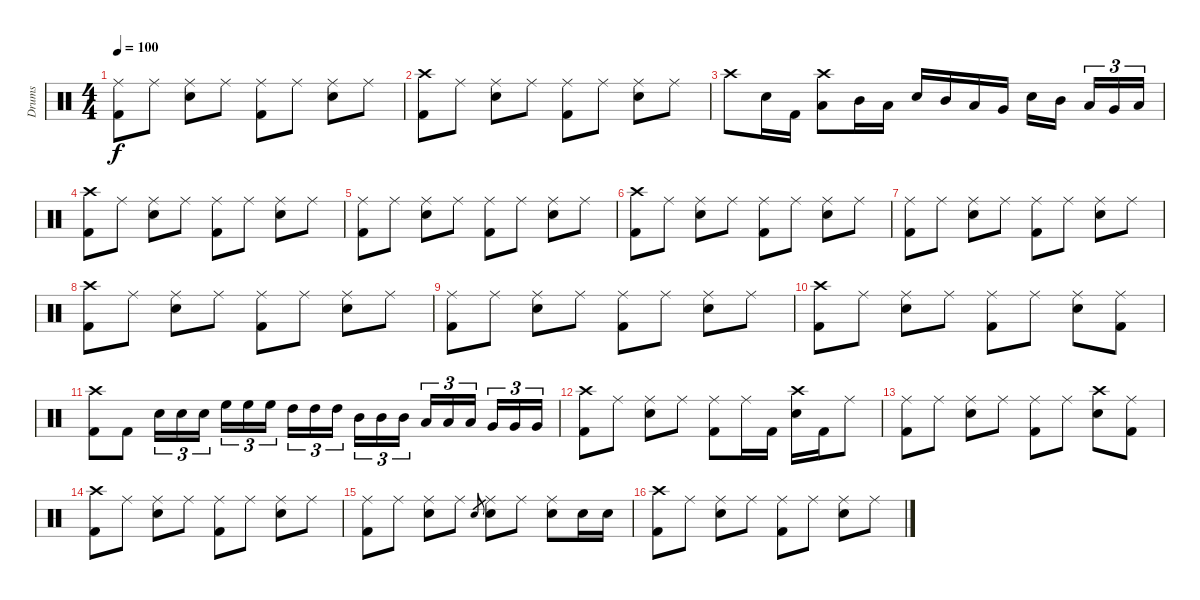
\track ("Drums" "Drums") {instrument percussion}
\staff {score}
\articulation defaults
\ts (4 4)
\tempo 100
\clef neutral
\ks c
("Ride (middle)" "Kick (hit) 2").8{dy f} "Ride (middle)".8 ("Ride (middle)" "Snare (hit) 2").8 "Ride (middle)".8 ("Ride (middle)" "Kick (hit) 2").8 "Ride (middle)".8 ("Ride (middle)" "Snare (hit) 2").8 "Ride (middle)".8 |
("Crash high (hit)" "Kick (hit) 2").8 "Ride (middle)".8 ("Ride (middle)" "Snare (hit) 2").8 "Ride (middle)".8 ("Ride (middle)" "Kick (hit) 2").8 "Ride (middle)".8 ("Ride (middle)" "Snare (hit) 2").8 "Ride (middle)".8 |
"Crash high (hit)".8 "Snare (hit) 2".16 "Kick (hit) 2".16 ("Crash high (hit)" "Low Tom (hit)").8 "Mid Tom (hit)".16 "Low Tom (hit)".16 "Snare (hit) 2".16 "Mid Tom (hit)".16 "Low Tom (hit)".16 "Very Low Tom (hit)".16 "Snare (hit) 2".16 "Mid Tom (hit)".16 "Low Tom (hit)".16{tu (3 2)} "Very Low Tom (hit)".16{tu (3 2)} "Low Floor Tom (hit)".16{tu (3 2)} |
("Crash high (hit)" "Kick (hit) 2").8 "Ride (middle)".8 ("Ride (middle)" "Snare (hit) 2").8 "Ride (middle)".8 ("Ride (middle)" "Kick (hit) 2").8 "Ride (middle)".8 ("Ride (middle)" "Snare (hit) 2").8 "Ride (middle)".8 |
("Ride (middle)" "Kick (hit) 2").8 "Ride (middle)".8 ("Ride (middle)" "Snare (hit) 2").8 "Ride (middle)".8 ("Ride (middle)" "Kick (hit) 2").8 "Ride (middle)".8 ("Ride (middle)" "Snare (hit) 2").8 "Ride (middle)".8 |
("Crash high (hit)" "Kick (hit) 2").8 "Ride (middle)".8 ("Ride (middle)" "Snare (hit) 2").8 "Ride (middle)".8 ("Ride (middle)" "Kick (hit) 2").8 "Ride (middle)".8 ("Ride (middle)" "Snare (hit) 2").8 "Ride (middle)".8 |
("Ride (middle)" "Kick (hit) 2").8 "Ride (middle)".8 ("Ride (middle)" "Snare (hit) 2").8 "Ride (middle)".8 ("Ride (middle)" "Kick (hit) 2").8 "Ride (middle)".8 ("Ride (middle)" "Snare (hit) 2").8 "Ride (middle)".8 |
("Crash high (hit)" "Kick (hit) 2").8 "Ride (middle)".8 ("Ride (middle)" "Snare (hit) 2").8 "Ride (middle)".8 ("Ride (middle)" "Kick (hit) 2").8 "Ride (middle)".8 ("Ride (middle)" "Snare (hit) 2").8 "Ride (middle)".8 |
("Ride (middle)" "Kick (hit) 2").8 "Ride (middle)".8 ("Ride (middle)" "Snare (hit) 2").8 "Ride (middle)".8 ("Ride (middle)" "Kick (hit) 2").8 "Ride (middle)".8 ("Ride (middle)" "Snare (hit) 2").8 "Ride (middle)".8 |
("Crash high (hit)" "Kick (hit) 2").8 "Ride (middle)".8 ("Ride (middle)" "Snare (hit) 2").8 "Ride (middle)".8 ("Ride (middle)" "Kick (hit) 2").8 "Ride (middle)".8 ("Ride (middle)" "Snare (hit) 2").8 ("Ride (middle)" "Kick (hit) 2").8 |
("Crash high (hit)" "Kick (hit) 2").8 "Kick (hit) 2".8 "Snare (hit) 2".16{tu (3 2)} "Snare (hit) 2".16{tu (3 2)} "Snare (hit) 2".16{tu (3 2)} "High Floor Tom (hit)".16{tu (3 2)} "High Floor Tom (hit)".16{tu (3 2)} "High Floor Tom (hit)".16{tu (3 2)} "High Tom (hit)".16{tu (3 2)} "High Tom (hit)".16{tu (3 2)} "High Tom (hit)".16{tu (3 2)} "Mid Tom (hit)".16{tu (3 2)} "Mid Tom (hit)".16{tu (3 2)} "Mid Tom (hit)".16{tu (3 2)} "Low Tom (hit)".16{tu (3 2)} "Low Tom (hit)".16{tu (3 2)} "Low Tom (hit)".16{tu (3 2)} "Very Low Tom (hit)".16{tu (3 2)} "Very Low Tom (hit)".16{tu (3 2)} "Very Low Tom (hit)".16{tu (3 2)} |
("Crash high (hit)" "Kick (hit) 2").8 "Ride (middle)".8 ("Ride (middle)" "Snare (hit) 2").8 "Ride (middle)".8 ("Ride (middle)" "Kick (hit) 2").8 "Ride (middle)".16 "Kick (hit) 2".16 ("Crash high (hit)" "Snare (hit) 2").16 "Kick (hit) 2".16 "Ride (middle)".8 |
("Ride (middle)" "Kick (hit) 2").8 "Ride (middle)".8 ("Ride (middle)" "Snare (hit) 2").8 "Ride (middle)".8 ("Ride (middle)" "Kick (hit) 2").8 "Ride (middle)".8 ("Crash high (hit)" "Snare (hit) 2").8 ("Ride (middle)" "Kick (hit) 2").8 |
("Crash high (hit)" "Kick (hit) 2").8 "Ride (middle)".8 ("Ride (middle)" "Snare (hit) 2").8 "Ride (middle)".8 ("Ride (middle)" "Kick (hit) 2").8 "Ride (middle)".8 ("Ride (middle)" "Snare (hit) 2").8 "Ride (middle)".8 |
("Ride (middle)" "Kick (hit) 2").8 "Ride (middle)".8 ("Ride (middle)" "Snare (hit) 2").8 "Ride (middle)".8 "Snare (hit) 2".8{gr} ("Ride (middle)" "Snare (hit) 2").8 "Ride (middle)".8 ("Ride (middle)" "Snare (hit) 2").8 "Snare (hit) 2".16 "Snare (hit) 2".16 |
("Crash high (hit)" "Kick (hit) 2").8 "Ride (middle)".8 ("Ride (middle)" "Snare (hit) 2").8 "Ride (middle)".8 ("Ride (middle)" "Kick (hit) 2").8 "Ride (middle)".8 ("Ride (middle)" "Snare (hit) 2").8 "Ride (middle)".8
